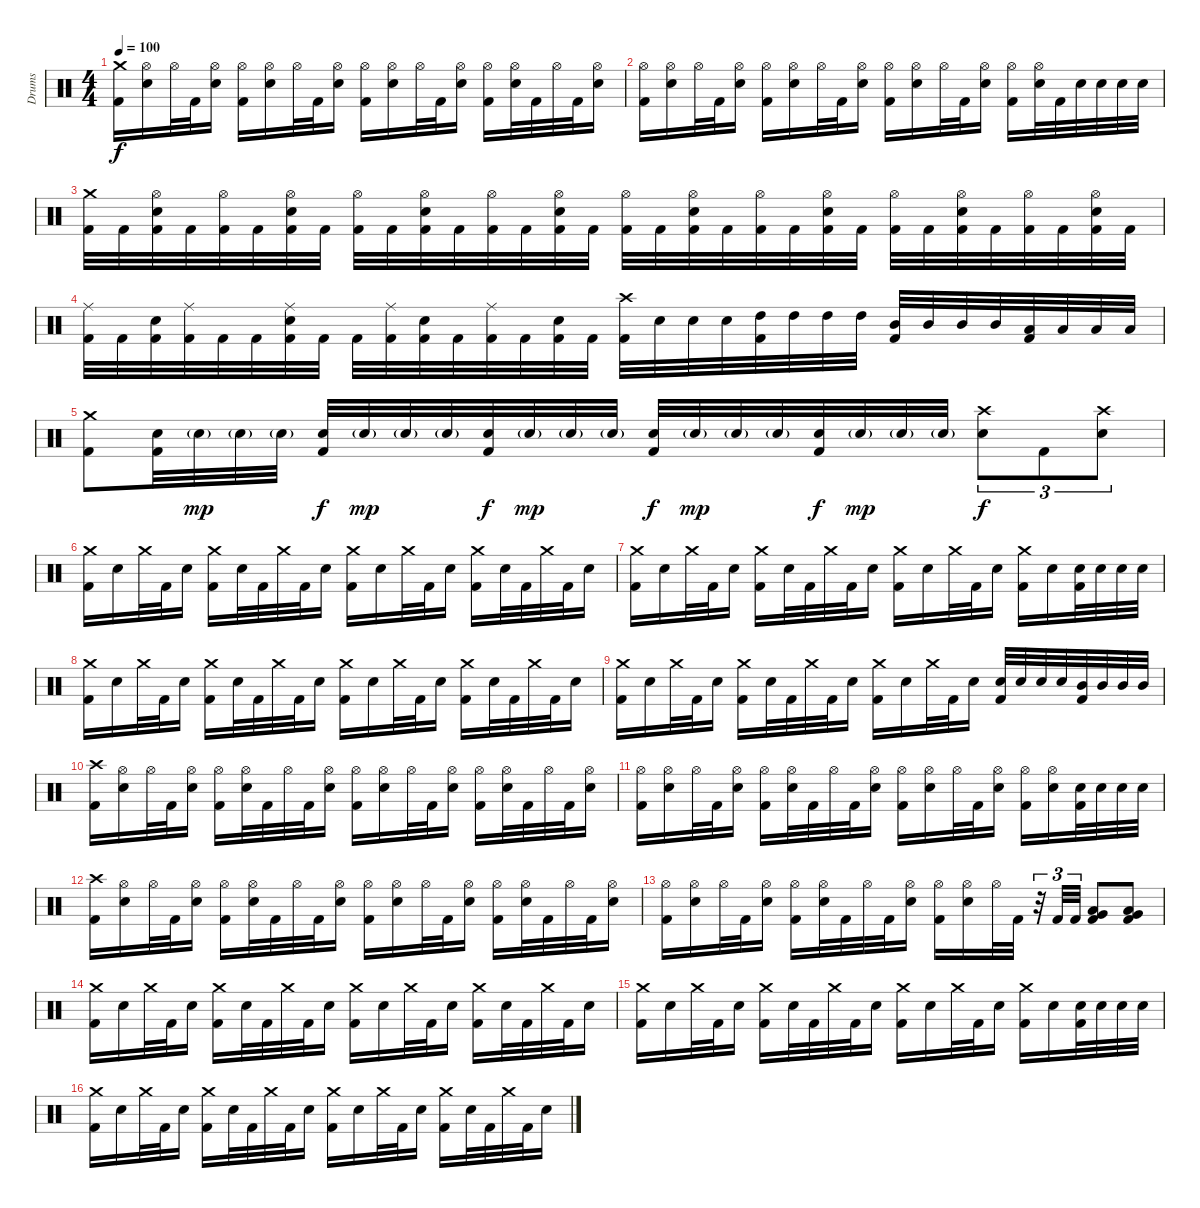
\track ("Drums" "Drums") {instrument percussion}
\staff {score}
\articulation defaults
\ts (4 4)
\tempo 100
\clef neutral
\ks c
("Crash medium (hit)" "Kick (hit) 2").16{dy f} ("Hi-Hat (open)" "Electric Snare (hit)").16 "Hi-Hat (open)".32 "Kick (hit) 2".32 ("Hi-Hat (open)" "Electric Snare (hit)").16 ("Hi-Hat (open)" "Kick (hit) 2").16 ("Hi-Hat (open)" "Electric Snare (hit)").16 "Hi-Hat (open)".32 "Kick (hit) 2".32 ("Hi-Hat (open)" "Electric Snare (hit)").16 ("Hi-Hat (open)" "Kick (hit) 2").16 ("Hi-Hat (open)" "Electric Snare (hit)").16 "Hi-Hat (open)".32 "Kick (hit) 2".32 ("Hi-Hat (open)" "Electric Snare (hit)").16 ("Hi-Hat (open)" "Kick (hit) 2").16 ("Hi-Hat (open)" "Electric Snare (hit)").32 "Kick (hit) 2".32 "Hi-Hat (open)".32 "Kick (hit) 2".32 ("Hi-Hat (open)" "Electric Snare (hit)").16 |
("Hi-Hat (open)" "Kick (hit) 2").16 ("Hi-Hat (open)" "Electric Snare (hit)").16 "Hi-Hat (open)".32 "Kick (hit) 2".32 ("Hi-Hat (open)" "Electric Snare (hit)").16 ("Hi-Hat (open)" "Kick (hit) 2").16 ("Hi-Hat (open)" "Electric Snare (hit)").16 "Hi-Hat (open)".32 "Kick (hit) 2".32 ("Hi-Hat (open)" "Electric Snare (hit)").16 ("Hi-Hat (open)" "Kick (hit) 2").16 ("Hi-Hat (open)" "Electric Snare (hit)").16 "Hi-Hat (open)".32 "Kick (hit) 2".32 ("Hi-Hat (open)" "Electric Snare (hit)").16 ("Hi-Hat (open)" "Kick (hit) 2").16 ("Hi-Hat (open)" "Electric Snare (hit)").32 "Kick (hit) 2".32 "Electric Snare (hit)".32 "Electric Snare (hit)".32 "Electric Snare (hit)".32 "Electric Snare (hit)".32 |
("Crash medium (hit)" "Kick (hit) 2").32 "Kick (hit) 2".32 ("Hi-Hat (open)" "Electric Snare (hit)" "Kick (hit) 2").32 "Kick (hit) 2".32 ("Hi-Hat (open)" "Kick (hit) 2").32 "Kick (hit) 2".32 ("Hi-Hat (open)" "Electric Snare (hit)" "Kick (hit) 2").32 "Kick (hit) 2".32 ("Hi-Hat (open)" "Kick (hit) 2").32 "Kick (hit) 2".32 ("Hi-Hat (open)" "Electric Snare (hit)" "Kick (hit) 2").32 "Kick (hit) 2".32 ("Hi-Hat (open)" "Kick (hit) 2").32 "Kick (hit) 2".32 ("Hi-Hat (open)" "Electric Snare (hit)" "Kick (hit) 2").32 "Kick (hit) 2".32 ("Hi-Hat (open)" "Kick (hit) 2").32 "Kick (hit) 2".32 ("Hi-Hat (open)" "Electric Snare (hit)" "Kick (hit) 2").32 "Kick (hit) 2".32 ("Hi-Hat (open)" "Kick (hit) 2").32 "Kick (hit) 2".32 ("Hi-Hat (open)" "Electric Snare (hit)" "Kick (hit) 2").32 "Kick (hit) 2".32 ("Hi-Hat (open)" "Kick (hit) 2").32 "Kick (hit) 2".32 ("Hi-Hat (open)" "Electric Snare (hit)" "Kick (hit) 2").32 "Kick (hit) 2".32 ("Hi-Hat (open)" "Kick (hit) 2").32 "Kick (hit) 2".32 ("Hi-Hat (open)" "Electric Snare (hit)" "Kick (hit) 2").32 "Kick (hit) 2".32 |
("Ride (middle)" "Kick (hit) 2").32 "Kick (hit) 2".32 ("Electric Snare (hit)" "Kick (hit) 2").32 ("Ride (middle)" "Kick (hit) 2").32 "Kick (hit) 2".32 "Kick (hit) 2".32 ("Ride (middle)" "Electric Snare (hit)" "Kick (hit) 2").32 "Kick (hit) 2".32 "Kick (hit) 2".32 ("Ride (middle)" "Kick (hit) 2").32 ("Electric Snare (hit)" "Kick (hit) 2").32 "Kick (hit) 2".32 ("Ride (middle)" "Kick (hit) 2").32 "Kick (hit) 2".32 ("Electric Snare (hit)" "Kick (hit) 2").32 "Kick (hit) 2".32 ("Crash high (hit)" "Kick (hit) 2").32 "Electric Snare (hit)".32 "Electric Snare (hit)".32 "Electric Snare (hit)".32 ("High Tom (hit)" "Kick (hit) 2").32 "High Tom (hit)".32 "High Tom (hit)".32 "High Tom (hit)".32 ("Mid Tom (hit)" "Kick (hit) 2").32 "Mid Tom (hit)".32 "Mid Tom (hit)".32 "Mid Tom (hit)".32 ("Low Tom (hit)" "Kick (hit) 2").32 "Low Tom (hit)".32 "Low Tom (hit)".32 "Low Tom (hit)".32 |
("Crash medium (hit)" "Kick (hit) 2").8 ("Electric Snare (hit)" "Kick (hit) 2").32 "Electric Snare (hit)"{g}.32{dy mp} "Electric Snare (hit)"{g}.32 "Electric Snare (hit)"{g}.32 ("Electric Snare (hit)" "Kick (hit) 2").32{dy f} "Electric Snare (hit)"{g}.32{dy mp} "Electric Snare (hit)"{g}.32 "Electric Snare (hit)"{g}.32 ("Electric Snare (hit)" "Kick (hit) 2").32{dy f} "Electric Snare (hit)"{g}.32{dy mp} "Electric Snare (hit)"{g}.32 "Electric Snare (hit)"{g}.32 ("Electric Snare (hit)" "Kick (hit) 2").32{dy f} "Electric Snare (hit)"{g}.32{dy mp} "Electric Snare (hit)"{g}.32 "Electric Snare (hit)"{g}.32 ("Electric Snare (hit)" "Kick (hit) 2").32{dy f} "Electric Snare (hit)"{g}.32{dy mp} "Electric Snare (hit)"{g}.32 "Electric Snare (hit)"{g}.32 ("Crash high (hit)" "Electric Snare (hit)").8{tu (3 2) dy f} "Kick (hit) 2".8{tu (3 2)} ("Crash high (hit)" "Electric Snare (hit)").8{tu (3 2)} |
("Crash medium (hit)" "Kick (hit) 2").16 "Electric Snare (hit)".16 "Crash medium (hit)".32 "Kick (hit) 2".32 "Electric Snare (hit)".16 ("Crash medium (hit)" "Kick (hit) 2").16 "Electric Snare (hit)".32 "Kick (hit) 2".32 "Crash medium (hit)".32 "Kick (hit) 2".32 "Electric Snare (hit)".16 ("Crash medium (hit)" "Kick (hit) 2").16 "Electric Snare (hit)".16 "Crash medium (hit)".32 "Kick (hit) 2".32 "Electric Snare (hit)".16 ("Crash medium (hit)" "Kick (hit) 2").16 "Electric Snare (hit)".32 "Kick (hit) 2".32 "Crash medium (hit)".32 "Kick (hit) 2".32 "Electric Snare (hit)".16 |
("Crash medium (hit)" "Kick (hit) 2").16 "Electric Snare (hit)".16 "Crash medium (hit)".32 "Kick (hit) 2".32 "Electric Snare (hit)".16 ("Crash medium (hit)" "Kick (hit) 2").16 "Electric Snare (hit)".32 "Kick (hit) 2".32 "Crash medium (hit)".32 "Kick (hit) 2".32 "Electric Snare (hit)".16 ("Crash medium (hit)" "Kick (hit) 2").16 "Electric Snare (hit)".16 "Crash medium (hit)".32 "Kick (hit) 2".32 "Electric Snare (hit)".16 ("Crash medium (hit)" "Kick (hit) 2").16 "Electric Snare (hit)".16 ("Electric Snare (hit)" "Kick (hit) 2").32 "Electric Snare (hit)".32 "Electric Snare (hit)".32 "Electric Snare (hit)".32 |
("Crash medium (hit)" "Kick (hit) 2").16 "Electric Snare (hit)".16 "Crash medium (hit)".32 "Kick (hit) 2".32 "Electric Snare (hit)".16 ("Crash medium (hit)" "Kick (hit) 2").16 "Electric Snare (hit)".32 "Kick (hit) 2".32 "Crash medium (hit)".32 "Kick (hit) 2".32 "Electric Snare (hit)".16 ("Crash medium (hit)" "Kick (hit) 2").16 "Electric Snare (hit)".16 "Crash medium (hit)".32 "Kick (hit) 2".32 "Electric Snare (hit)".16 ("Crash medium (hit)" "Kick (hit) 2").16 "Electric Snare (hit)".32 "Kick (hit) 2".32 "Crash medium (hit)".32 "Kick (hit) 2".32 "Electric Snare (hit)".16 |
("Crash medium (hit)" "Kick (hit) 2").16 "Electric Snare (hit)".16 "Crash medium (hit)".32 "Kick (hit) 2".32 "Electric Snare (hit)".16 ("Crash medium (hit)" "Kick (hit) 2").16 "Electric Snare (hit)".32 "Kick (hit) 2".32 "Crash medium (hit)".32 "Kick (hit) 2".32 "Electric Snare (hit)".16 ("Crash medium (hit)" "Kick (hit) 2").16 "Electric Snare (hit)".16 "Crash medium (hit)".32 "Kick (hit) 2".32 "Electric Snare (hit)".16 ("Electric Snare (hit)" "Kick (hit) 2").32 "Electric Snare (hit)".32 "Electric Snare (hit)".32 "Electric Snare (hit)".32 ("Mid Tom (hit)" "Kick (hit) 2").32 "Mid Tom (hit)".32 "Mid Tom (hit)".32 "Mid Tom (hit)".32 |
("Crash high (hit)" "Kick (hit) 2").16 ("Hi-Hat (open)" "Electric Snare (hit)").16 "Hi-Hat (open)".32 "Kick (hit) 2".32 ("Hi-Hat (open)" "Electric Snare (hit)").16 ("Hi-Hat (open)" "Kick (hit) 2").16 ("Hi-Hat (open)" "Electric Snare (hit)").32 "Kick (hit) 2".32 "Hi-Hat (open)".32 "Kick (hit) 2".32 ("Hi-Hat (open)" "Electric Snare (hit)").16 ("Hi-Hat (open)" "Kick (hit) 2").16 ("Hi-Hat (open)" "Electric Snare (hit)").16 "Hi-Hat (open)".32 "Kick (hit) 2".32 ("Hi-Hat (open)" "Electric Snare (hit)").16 ("Hi-Hat (open)" "Kick (hit) 2").16 ("Hi-Hat (open)" "Electric Snare (hit)").32 "Kick (hit) 2".32 "Hi-Hat (open)".32 "Kick (hit) 2".32 ("Hi-Hat (open)" "Electric Snare (hit)").16 |
("Hi-Hat (open)" "Kick (hit) 2").16 ("Hi-Hat (open)" "Electric Snare (hit)").16 "Hi-Hat (open)".32 "Kick (hit) 2".32 ("Hi-Hat (open)" "Electric Snare (hit)").16 ("Hi-Hat (open)" "Kick (hit) 2").16 ("Hi-Hat (open)" "Electric Snare (hit)").32 "Kick (hit) 2".32 "Hi-Hat (open)".32 "Kick (hit) 2".32 ("Hi-Hat (open)" "Electric Snare (hit)").16 ("Hi-Hat (open)" "Kick (hit) 2").16 ("Hi-Hat (open)" "Electric Snare (hit)").16 "Hi-Hat (open)".32 "Kick (hit) 2".32 ("Hi-Hat (open)" "Electric Snare (hit)").16 ("Hi-Hat (open)" "Kick (hit) 2").16 ("Hi-Hat (open)" "Electric Snare (hit)").16 ("Electric Snare (hit)" "Kick (hit) 2").32 "Electric Snare (hit)".32 "Electric Snare (hit)".32 "Electric Snare (hit)".32 |
("Crash high (hit)" "Kick (hit) 2").16 ("Hi-Hat (open)" "Electric Snare (hit)").16 "Hi-Hat (open)".32 "Kick (hit) 2".32 ("Hi-Hat (open)" "Electric Snare (hit)").16 ("Hi-Hat (open)" "Kick (hit) 2").16 ("Hi-Hat (open)" "Electric Snare (hit)").32 "Kick (hit) 2".32 "Hi-Hat (open)".32 "Kick (hit) 2".32 ("Hi-Hat (open)" "Electric Snare (hit)").16 ("Hi-Hat (open)" "Kick (hit) 2").16 ("Hi-Hat (open)" "Electric Snare (hit)").16 "Hi-Hat (open)".32 "Kick (hit) 2".32 ("Hi-Hat (open)" "Electric Snare (hit)").16 ("Hi-Hat (open)" "Kick (hit) 2").16 ("Hi-Hat (open)" "Electric Snare (hit)").32 "Kick (hit) 2".32 "Hi-Hat (open)".32 "Kick (hit) 2".32 ("Hi-Hat (open)" "Electric Snare (hit)").16 |
("Hi-Hat (open)" "Kick (hit) 2").16 ("Hi-Hat (open)" "Electric Snare (hit)").16 "Hi-Hat (open)".32 "Kick (hit) 2".32 ("Hi-Hat (open)" "Electric Snare (hit)").16 ("Hi-Hat (open)" "Kick (hit) 2").16 ("Hi-Hat (open)" "Electric Snare (hit)").32 "Kick (hit) 2".32 "Hi-Hat (open)".32 "Kick (hit) 2".32 ("Hi-Hat (open)" "Electric Snare (hit)").16 ("Hi-Hat (open)" "Kick (hit) 2").16 ("Hi-Hat (open)" "Electric Snare (hit)").16 "Hi-Hat (open)".32 "Kick (hit) 2".32 r.32{tu (3 2)} "Kick (hit) 2".32{tu (3 2)} "Kick (hit) 2".32{tu (3 2)} ("Very Low Tom (hit)" "Low Floor Tom (hit)" "Kick (hit) 2").8 ("Very Low Tom (hit)" "Low Floor Tom (hit)" "Kick (hit) 2").8 |
("Crash medium (hit)" "Kick (hit) 2").16 "Electric Snare (hit)".16 "Crash medium (hit)".32 "Kick (hit) 2".32 "Electric Snare (hit)".16 ("Crash medium (hit)" "Kick (hit) 2").16 "Electric Snare (hit)".32 "Kick (hit) 2".32 "Crash medium (hit)".32 "Kick (hit) 2".32 "Electric Snare (hit)".16 ("Crash medium (hit)" "Kick (hit) 2").16 "Electric Snare (hit)".16 "Crash medium (hit)".32 "Kick (hit) 2".32 "Electric Snare (hit)".16 ("Crash medium (hit)" "Kick (hit) 2").16 "Electric Snare (hit)".32 "Kick (hit) 2".32 "Crash medium (hit)".32 "Kick (hit) 2".32 "Electric Snare (hit)".16 |
("Crash medium (hit)" "Kick (hit) 2").16 "Electric Snare (hit)".16 "Crash medium (hit)".32 "Kick (hit) 2".32 "Electric Snare (hit)".16 ("Crash medium (hit)" "Kick (hit) 2").16 "Electric Snare (hit)".32 "Kick (hit) 2".32 "Crash medium (hit)".32 "Kick (hit) 2".32 "Electric Snare (hit)".16 ("Crash medium (hit)" "Kick (hit) 2").16 "Electric Snare (hit)".16 "Crash medium (hit)".32 "Kick (hit) 2".32 "Electric Snare (hit)".16 ("Crash medium (hit)" "Kick (hit) 2").16 "Electric Snare (hit)".16 ("Electric Snare (hit)" "Kick (hit) 2").32 "Electric Snare (hit)".32 "Electric Snare (hit)".32 "Electric Snare (hit)".32 |
("Crash medium (hit)" "Kick (hit) 2").16 "Electric Snare (hit)".16 "Crash medium (hit)".32 "Kick (hit) 2".32 "Electric Snare (hit)".16 ("Crash medium (hit)" "Kick (hit) 2").16 "Electric Snare (hit)".32 "Kick (hit) 2".32 "Crash medium (hit)".32 "Kick (hit) 2".32 "Electric Snare (hit)".16 ("Crash medium (hit)" "Kick (hit) 2").16 "Electric Snare (hit)".16 "Crash medium (hit)".32 "Kick (hit) 2".32 "Electric Snare (hit)".16 ("Crash medium (hit)" "Kick (hit) 2").16 "Electric Snare (hit)".32 "Kick (hit) 2".32 "Crash medium (hit)".32 "Kick (hit) 2".32 "Electric Snare (hit)".16
